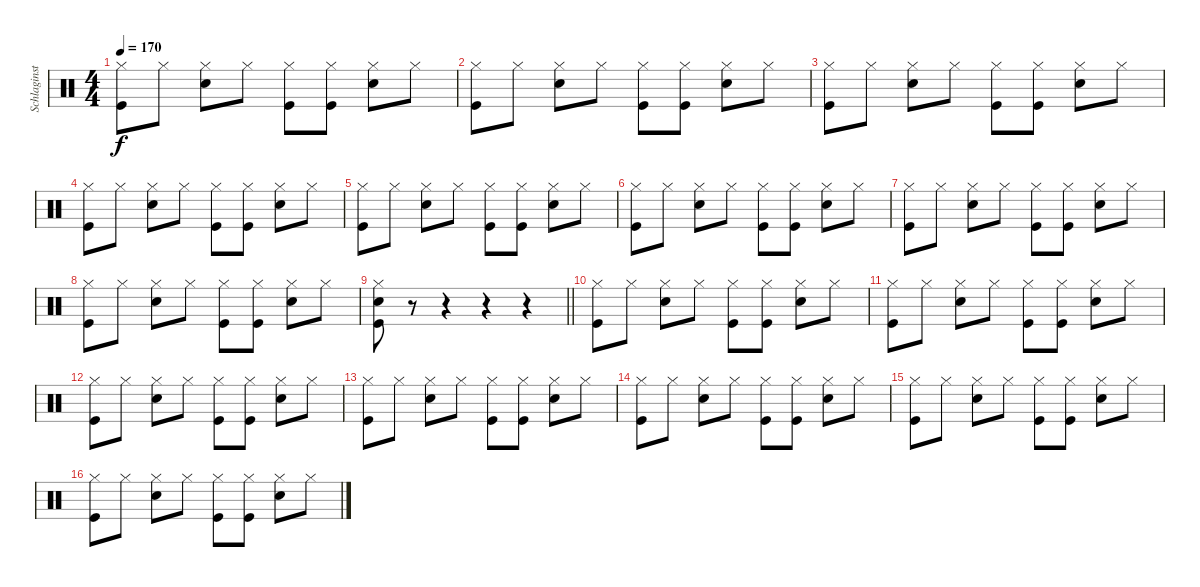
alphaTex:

\track ("Schlaginstrumente - Auswahl" "Schlaginst") {instrument percussion}
\staff {score}
\articulation defaults
\ts (4 4)
\tempo 170
\clef neutral
\ks c
("Hi-Hat (closed)" "Kick (hit)").8{dy f} "Hi-Hat (closed)".8 ("Hi-Hat (closed)" "Electric Snare (hit)").8 "Hi-Hat (closed)".8 ("Hi-Hat (closed)" "Kick (hit)").8 ("Hi-Hat (closed)" "Kick (hit)").8 ("Hi-Hat (closed)" "Electric Snare (hit)").8 "Hi-Hat (closed)".8 |
("Hi-Hat (closed)" "Kick (hit)").8 "Hi-Hat (closed)".8 ("Hi-Hat (closed)" "Electric Snare (hit)").8 "Hi-Hat (closed)".8 ("Hi-Hat (closed)" "Kick (hit)").8 ("Hi-Hat (closed)" "Kick (hit)").8 ("Hi-Hat (closed)" "Electric Snare (hit)").8 "Hi-Hat (closed)".8 |
("Hi-Hat (closed)" "Kick (hit)").8 "Hi-Hat (closed)".8 ("Hi-Hat (closed)" "Electric Snare (hit)").8 "Hi-Hat (closed)".8 ("Hi-Hat (closed)" "Kick (hit)").8 ("Hi-Hat (closed)" "Kick (hit)").8 ("Hi-Hat (closed)" "Electric Snare (hit)").8 "Hi-Hat (closed)".8 |
("Hi-Hat (closed)" "Kick (hit)").8 "Hi-Hat (closed)".8 ("Hi-Hat (closed)" "Electric Snare (hit)").8 "Hi-Hat (closed)".8 ("Hi-Hat (closed)" "Kick (hit)").8 ("Hi-Hat (closed)" "Kick (hit)").8 ("Hi-Hat (closed)" "Electric Snare (hit)").8 "Hi-Hat (closed)".8 |
("Hi-Hat (closed)" "Kick (hit)").8 "Hi-Hat (closed)".8 ("Hi-Hat (closed)" "Electric Snare (hit)").8 "Hi-Hat (closed)".8 ("Hi-Hat (closed)" "Kick (hit)").8 ("Hi-Hat (closed)" "Kick (hit)").8 ("Hi-Hat (closed)" "Electric Snare (hit)").8 "Hi-Hat (closed)".8 |
("Hi-Hat (closed)" "Kick (hit)").8 "Hi-Hat (closed)".8 ("Hi-Hat (closed)" "Electric Snare (hit)").8 "Hi-Hat (closed)".8 ("Hi-Hat (closed)" "Kick (hit)").8 ("Hi-Hat (closed)" "Kick (hit)").8 ("Hi-Hat (closed)" "Electric Snare (hit)").8 "Hi-Hat (closed)".8 |
("Hi-Hat (closed)" "Kick (hit)").8 "Hi-Hat (closed)".8 ("Hi-Hat (closed)" "Electric Snare (hit)").8 "Hi-Hat (closed)".8 ("Hi-Hat (closed)" "Kick (hit)").8 ("Hi-Hat (closed)" "Kick (hit)").8 ("Hi-Hat (closed)" "Electric Snare (hit)").8 "Hi-Hat (closed)".8 |
("Hi-Hat (closed)" "Kick (hit)").8 "Hi-Hat (closed)".8 ("Hi-Hat (closed)" "Electric Snare (hit)").8 "Hi-Hat (closed)".8 ("Hi-Hat (closed)" "Kick (hit)").8 ("Hi-Hat (closed)" "Kick (hit)").8 ("Hi-Hat (closed)" "Electric Snare (hit)").8 "Hi-Hat (closed)".8 |
\barLineRight lightlight
("Hi-Hat (closed)" "Electric Snare (hit)" "Kick (hit)").8 r.8 r.4 r.4 r.4 |
("Hi-Hat (closed)" "Kick (hit)").8 "Hi-Hat (closed)".8 ("Hi-Hat (closed)" "Electric Snare (hit)").8 "Hi-Hat (closed)".8 ("Hi-Hat (closed)" "Kick (hit)").8 ("Hi-Hat (closed)" "Kick (hit)").8 ("Hi-Hat (closed)" "Electric Snare (hit)").8 "Hi-Hat (closed)".8 |
("Hi-Hat (closed)" "Kick (hit)").8 "Hi-Hat (closed)".8 ("Hi-Hat (closed)" "Electric Snare (hit)").8 "Hi-Hat (closed)".8 ("Hi-Hat (closed)" "Kick (hit)").8 ("Hi-Hat (closed)" "Kick (hit)").8 ("Hi-Hat (closed)" "Electric Snare (hit)").8 "Hi-Hat (closed)".8 |
("Hi-Hat (closed)" "Kick (hit)").8 "Hi-Hat (closed)".8 ("Hi-Hat (closed)" "Electric Snare (hit)").8 "Hi-Hat (closed)".8 ("Hi-Hat (closed)" "Kick (hit)").8 ("Hi-Hat (closed)" "Kick (hit)").8 ("Hi-Hat (closed)" "Electric Snare (hit)").8 "Hi-Hat (closed)".8 |
("Hi-Hat (closed)" "Kick (hit)").8 "Hi-Hat (closed)".8 ("Hi-Hat (closed)" "Electric Snare (hit)").8 "Hi-Hat (closed)".8 ("Hi-Hat (closed)" "Kick (hit)").8 ("Hi-Hat (closed)" "Kick (hit)").8 ("Hi-Hat (closed)" "Electric Snare (hit)").8 "Hi-Hat (closed)".8 |
("Hi-Hat (closed)" "Kick (hit)").8 "Hi-Hat (closed)".8 ("Hi-Hat (closed)" "Electric Snare (hit)").8 "Hi-Hat (closed)".8 ("Hi-Hat (closed)" "Kick (hit)").8 ("Hi-Hat (closed)" "Kick (hit)").8 ("Hi-Hat (closed)" "Electric Snare (hit)").8 "Hi-Hat (closed)".8 |
("Hi-Hat (closed)" "Kick (hit)").8 "Hi-Hat (closed)".8 ("Hi-Hat (closed)" "Electric Snare (hit)").8 "Hi-Hat (closed)".8 ("Hi-Hat (closed)" "Kick (hit)").8 ("Hi-Hat (closed)" "Kick (hit)").8 ("Hi-Hat (closed)" "Electric Snare (hit)").8 "Hi-Hat (closed)".8 |
("Hi-Hat (closed)" "Kick (hit)").8 "Hi-Hat (closed)".8 ("Hi-Hat (closed)" "Electric Snare (hit)").8 "Hi-Hat (closed)".8 ("Hi-Hat (closed)" "Kick (hit)").8 ("Hi-Hat (closed)" "Kick (hit)").8 ("Hi-Hat (closed)" "Electric Snare (hit)").8 "Hi-Hat (closed)".8
